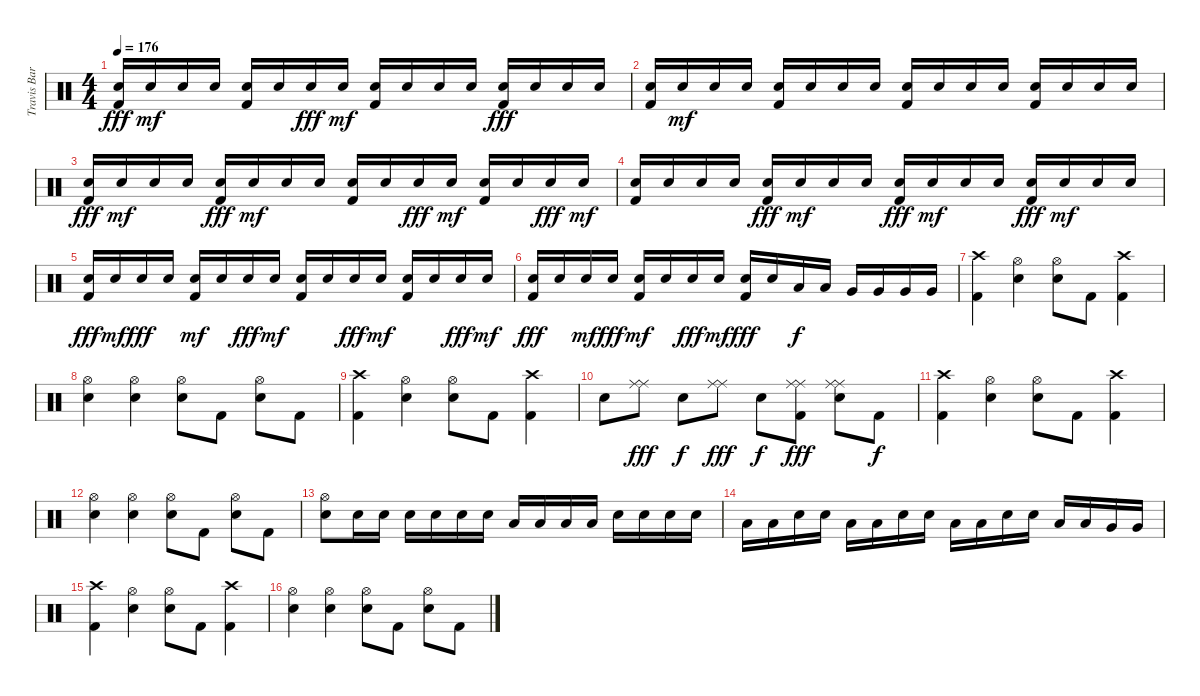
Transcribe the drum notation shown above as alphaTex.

\track ("Travis Barker - Drums" "Travis Bar") {instrument percussion}
\staff {score}
\articulation defaults
\ts (4 4)
\tempo 176
\clef neutral
\ks c
("Electric Snare (hit)" "Kick (hit) 2").16{dy fff} "Electric Snare (hit)".16{dy mf} "Electric Snare (hit)".16 "Electric Snare (hit)".16 ("Electric Snare (hit)" "Kick (hit) 2").16 "Electric Snare (hit)".16 "Electric Snare (hit)".16{dy fff} "Electric Snare (hit)".16{dy mf} ("Electric Snare (hit)" "Kick (hit) 2").16 "Electric Snare (hit)".16 "Electric Snare (hit)".16 "Electric Snare (hit)".16 ("Electric Snare (hit)" "Kick (hit) 2").16{dy fff} "Electric Snare (hit)".16 "Electric Snare (hit)".16 "Electric Snare (hit)".16 |
("Electric Snare (hit)" "Kick (hit) 2").16 "Electric Snare (hit)".16{dy mf} "Electric Snare (hit)".16 "Electric Snare (hit)".16 ("Electric Snare (hit)" "Kick (hit) 2").16 "Electric Snare (hit)".16 "Electric Snare (hit)".16 "Electric Snare (hit)".16 ("Electric Snare (hit)" "Kick (hit) 2").16 "Electric Snare (hit)".16 "Electric Snare (hit)".16 "Electric Snare (hit)".16 ("Electric Snare (hit)" "Kick (hit) 2").16 "Electric Snare (hit)".16 "Electric Snare (hit)".16 "Electric Snare (hit)".16 |
("Electric Snare (hit)" "Kick (hit) 2").16{dy fff} "Electric Snare (hit)".16{dy mf} "Electric Snare (hit)".16 "Electric Snare (hit)".16 ("Electric Snare (hit)" "Kick (hit) 2").16{dy fff} "Electric Snare (hit)".16{dy mf} "Electric Snare (hit)".16 "Electric Snare (hit)".16 ("Electric Snare (hit)" "Kick (hit) 2").16 "Electric Snare (hit)".16 "Electric Snare (hit)".16{dy fff} "Electric Snare (hit)".16{dy mf} ("Electric Snare (hit)" "Kick (hit) 2").16 "Electric Snare (hit)".16 "Electric Snare (hit)".16{dy fff} "Electric Snare (hit)".16{dy mf} |
("Electric Snare (hit)" "Kick (hit) 2").16 "Electric Snare (hit)".16 "Electric Snare (hit)".16 "Electric Snare (hit)".16 ("Electric Snare (hit)" "Kick (hit) 2").16{dy fff} "Electric Snare (hit)".16{dy mf} "Electric Snare (hit)".16 "Electric Snare (hit)".16 ("Electric Snare (hit)" "Kick (hit) 2").16{dy fff} "Electric Snare (hit)".16{dy mf} "Electric Snare (hit)".16 "Electric Snare (hit)".16 ("Electric Snare (hit)" "Kick (hit) 2").16{dy fff} "Electric Snare (hit)".16{dy mf} "Electric Snare (hit)".16 "Electric Snare (hit)".16 |
("Electric Snare (hit)" "Kick (hit) 2").16{dy fff} "Electric Snare (hit)".16{dy mf} "Electric Snare (hit)".16{dy fff} "Electric Snare (hit)".16 ("Electric Snare (hit)" "Kick (hit) 2").16{dy mf} "Electric Snare (hit)".16 "Electric Snare (hit)".16{dy fff} "Electric Snare (hit)".16{dy mf} ("Electric Snare (hit)" "Kick (hit) 2").16 "Electric Snare (hit)".16 "Electric Snare (hit)".16{dy fff} "Electric Snare (hit)".16{dy mf} ("Electric Snare (hit)" "Kick (hit) 2").16 "Electric Snare (hit)".16 "Electric Snare (hit)".16{dy fff} "Electric Snare (hit)".16{dy mf} |
("Electric Snare (hit)" "Kick (hit) 2").16{dy fff} "Electric Snare (hit)".16 "Electric Snare (hit)".16{dy mf} "Electric Snare (hit)".16{dy fff} ("Electric Snare (hit)" "Kick (hit) 2").16{dy mf} "Electric Snare (hit)".16 "Electric Snare (hit)".16{dy fff} "Electric Snare (hit)".16{dy mf} ("Electric Snare (hit)" "Kick (hit) 2").16{dy fff} "Electric Snare (hit)".16 "Low Tom (hit)".16{dy f} "Low Tom (hit)".16 "Very Low Tom (hit)".16 "Very Low Tom (hit)".16 "Very Low Tom (hit)".16 "Very Low Tom (hit)".16 |
("Crash high (hit)" "Kick (hit) 2").4 ("Hi-Hat (open)" "Electric Snare (hit)").4 ("Hi-Hat (open)" "Electric Snare (hit)").8 "Kick (hit) 2".8 ("Crash high (hit)" "Kick (hit) 2").4 |
("Hi-Hat (open)" "Electric Snare (hit)").4 ("Hi-Hat (open)" "Electric Snare (hit)").4 ("Hi-Hat (open)" "Electric Snare (hit)").8 "Kick (hit) 2".8 ("Hi-Hat (open)" "Electric Snare (hit)").8 "Kick (hit) 2".8 |
("Crash high (hit)" "Kick (hit) 2").4 ("Hi-Hat (open)" "Electric Snare (hit)").4 ("Hi-Hat (open)" "Electric Snare (hit)").8 "Kick (hit) 2".8 ("Crash high (hit)" "Kick (hit) 2").4 |
"Electric Snare (hit)".8 ("Ride (middle)" "Ride (middle)").8{dy fff} "Electric Snare (hit)".8{dy f} ("Ride (middle)" "Ride (middle)").8{dy fff} "Electric Snare (hit)".8{dy f} ("Ride (middle)" "Ride (middle)" "Kick (hit) 2").8{dy fff} ("Ride (middle)" "Ride (middle)" "Electric Snare (hit)").8 "Kick (hit) 2".8{dy f} |
("Crash high (hit)" "Kick (hit) 2").4 ("Hi-Hat (open)" "Electric Snare (hit)").4 ("Hi-Hat (open)" "Electric Snare (hit)").8 "Kick (hit) 2".8 ("Crash high (hit)" "Kick (hit) 2").4 |
("Hi-Hat (open)" "Electric Snare (hit)").4 ("Hi-Hat (open)" "Electric Snare (hit)").4 ("Hi-Hat (open)" "Electric Snare (hit)").8 "Kick (hit) 2".8 ("Hi-Hat (open)" "Electric Snare (hit)").8 "Kick (hit) 2".8 |
("Hi-Hat (open)" "Electric Snare (hit)").8 "Electric Snare (hit)".16 "Electric Snare (hit)".16 "Electric Snare (hit)".16 "Electric Snare (hit)".16 "Electric Snare (hit)".16 "Electric Snare (hit)".16 "Low Tom (hit)".16 "Low Tom (hit)".16 "Low Tom (hit)".16 "Low Tom (hit)".16 "Electric Snare (hit)".16 "Electric Snare (hit)".16 "Electric Snare (hit)".16 "Electric Snare (hit)".16 |
"Low Tom (hit)".16 "Low Tom (hit)".16 "Electric Snare (hit)".16 "Electric Snare (hit)".16 "Low Tom (hit)".16 "Low Tom (hit)".16 "Electric Snare (hit)".16 "Electric Snare (hit)".16 "Low Tom (hit)".16 "Low Tom (hit)".16 "Electric Snare (hit)".16 "Electric Snare (hit)".16 "Low Tom (hit)".16 "Low Tom (hit)".16 "Very Low Tom (hit)".16 "Very Low Tom (hit)".16 |
("Crash high (hit)" "Kick (hit) 2").4 ("Hi-Hat (open)" "Electric Snare (hit)").4 ("Hi-Hat (open)" "Electric Snare (hit)").8 "Kick (hit) 2".8 ("Crash high (hit)" "Kick (hit) 2").4 |
("Hi-Hat (open)" "Electric Snare (hit)").4 ("Hi-Hat (open)" "Electric Snare (hit)").4 ("Hi-Hat (open)" "Electric Snare (hit)").8 "Kick (hit) 2".8 ("Hi-Hat (open)" "Electric Snare (hit)").8 "Kick (hit) 2".8
